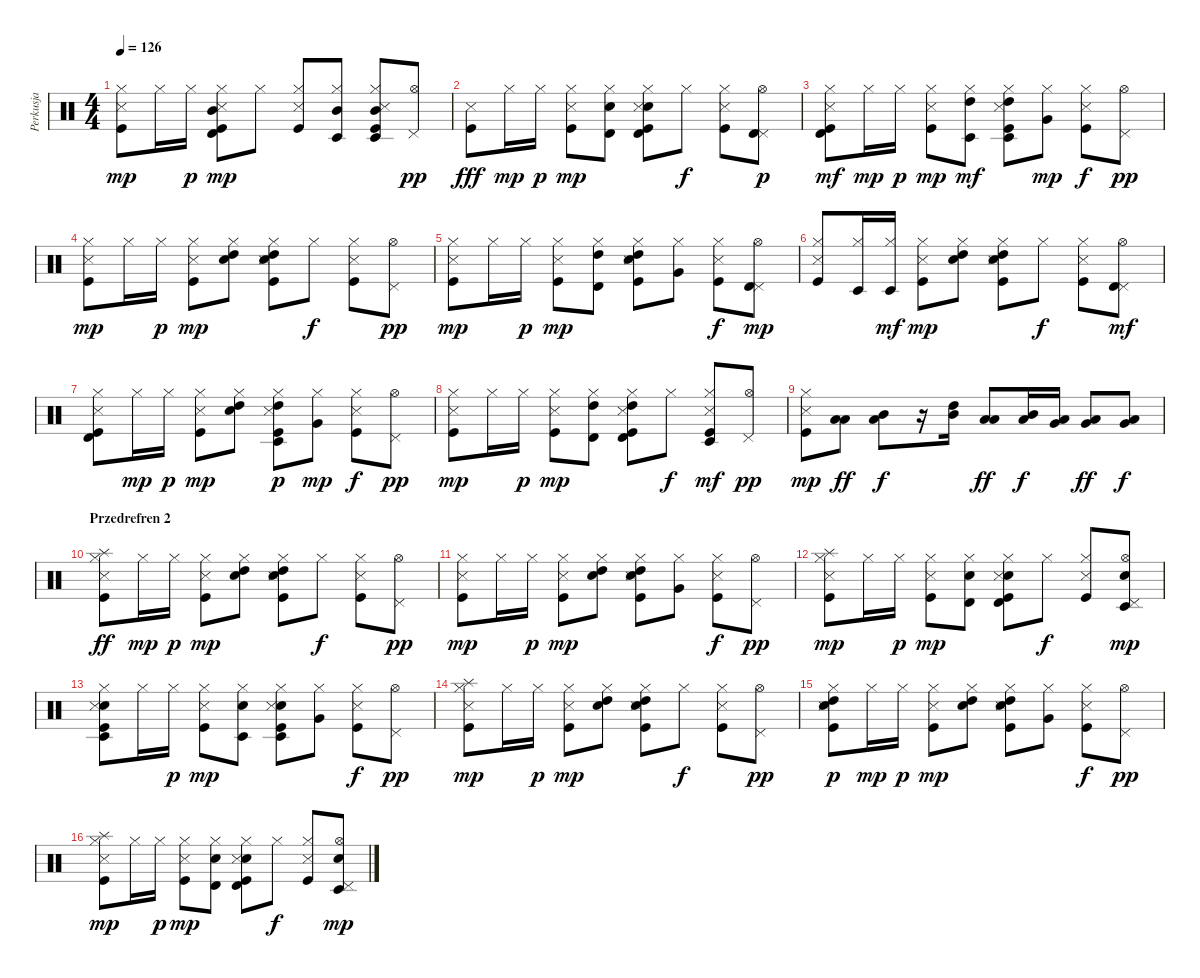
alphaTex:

\track ("Perkusja" "Perkusja") {instrument percussion}
\staff {score}
\articulation defaults
\ts (4 4)
\tempo 126
\clef neutral
\ks c
("Hi-Hat (closed)" "Kick (hit)" "Snare (side stick) 3").8{dy mp} "Hi-Hat (closed)".16 "Hi-Hat (closed)".16{dy p} ("Hi-Hat (closed)" "Kick (hit)" "Timbale high (hit)" "Mid Tom (hit)" "Snare (side stick) 3").8{dy mp} "Hi-Hat (closed)".8 ("Hi-Hat (closed)" "Kick (hit)" "Snare (side stick) 3").8 ("Hi-Hat (closed)" "Timbale low (hit)" "Mid Tom (hit)").8 ("Hi-Hat (closed)" "Kick (hit)" "Timbale low (hit)" "Mid Tom (hit)" "Snare (side stick) 3").8 ("Hi-Hat (open)" "Pedal Hi-Hat (hit)").8{dy pp} |
("Kick (hit)" "Snare (side stick) 3").8{dy fff} "Hi-Hat (closed)".16{dy mp} "Hi-Hat (closed)".16{dy p} ("Hi-Hat (closed)" "Kick (hit)" "Snare (side stick) 3").8{dy mp} ("Hi-Hat (closed)" "Timbale high (hit)" "Electric Snare (hit)").8 ("Hi-Hat (closed)" "Kick (hit)" "Timbale high (hit)" "Electric Snare (hit)" "Snare (side stick) 3").8 "Hi-Hat (closed)".8{dy f} ("Hi-Hat (closed)" "Kick (hit)" "Snare (side stick) 3").8 ("Hi-Hat (open)" "Pedal Hi-Hat (hit)" "Timbale high (hit)").8{dy p} |
("Hi-Hat (closed)" "Kick (hit)" "Timbale high (hit)" "Snare (side stick) 3").8{dy mf} "Hi-Hat (closed)".16{dy mp} "Hi-Hat (closed)".16{dy p} ("Hi-Hat (closed)" "Kick (hit)" "Snare (side stick) 3").8{dy mp} ("Hi-Hat (closed)" "High Tom (hit)" "Timbale low (hit)").8{dy mf} ("Hi-Hat (closed)" "Kick (hit)" "High Tom (hit)" "Timbale low (hit)" "Snare (side stick) 3").8 ("Hi-Hat (closed)" "Very Low Tom (hit)").8{dy mp} ("Hi-Hat (closed)" "Kick (hit)" "Snare (side stick) 3").8{dy f} ("Hi-Hat (open)" "Pedal Hi-Hat (hit)").8{dy pp} |
("Hi-Hat (closed)" "Kick (hit)" "Snare (side stick) 3").8{dy mp} "Hi-Hat (closed)".16 "Hi-Hat (closed)".16{dy p} ("Hi-Hat (closed)" "Kick (hit)" "Snare (side stick) 3").8{dy mp} ("Hi-Hat (closed)" "High Tom (hit)" "Electric Snare (hit)").8 ("Hi-Hat (closed)" "Kick (hit)" "High Tom (hit)" "Electric Snare (hit)" "Snare (side stick) 3").8 "Hi-Hat (closed)".8{dy f} ("Hi-Hat (closed)" "Kick (hit)" "Snare (side stick) 3").8 ("Hi-Hat (open)" "Pedal Hi-Hat (hit)").8{dy pp} |
("Hi-Hat (closed)" "Kick (hit)" "Snare (side stick) 3").8{dy mp} "Hi-Hat (closed)".16 "Hi-Hat (closed)".16{dy p} ("Hi-Hat (closed)" "Kick (hit)" "Snare (side stick) 3").8{dy mp} ("Hi-Hat (closed)" "High Tom (hit)" "Timbale high (hit)").8 ("Hi-Hat (closed)" "Kick (hit)" "High Tom (hit)" "Electric Snare (hit)" "Snare (side stick) 3").8 ("Hi-Hat (closed)" "Very Low Tom (hit)").8 ("Hi-Hat (closed)" "Kick (hit)" "Snare (side stick) 3").8{dy f} ("Hi-Hat (open)" "Pedal Hi-Hat (hit)" "Timbale high (hit)").8{dy mp} |
("Hi-Hat (closed)" "Kick (hit)" "Snare (side stick) 3").8 ("Hi-Hat (closed)" "Timbale low (hit)").16 ("Hi-Hat (closed)" "Timbale low (hit)").16{dy mf} ("Hi-Hat (closed)" "Kick (hit)" "Snare (side stick) 3").8{dy mp} ("Hi-Hat (closed)" "High Tom (hit)" "Electric Snare (hit)").8 ("Hi-Hat (closed)" "Kick (hit)" "High Tom (hit)" "Electric Snare (hit)" "Snare (side stick) 3").8 "Hi-Hat (closed)".8{dy f} ("Hi-Hat (closed)" "Kick (hit)" "Snare (side stick) 3").8 ("Hi-Hat (open)" "Pedal Hi-Hat (hit)" "Timbale high (hit)").8{dy mf} |
("Hi-Hat (closed)" "Kick (hit)" "Timbale high (hit)" "Snare (side stick) 3").8 "Hi-Hat (closed)".16{dy mp} "Hi-Hat (closed)".16{dy p} ("Hi-Hat (closed)" "Kick (hit)" "Snare (side stick) 3").8{dy mp} ("Hi-Hat (closed)" "High Tom (hit)" "Electric Snare (hit)").8 ("Hi-Hat (closed)" "Kick (hit)" "High Tom (hit)" "Timbale low (hit)" "Snare (side stick) 3").8{dy p} ("Hi-Hat (closed)" "Very Low Tom (hit)").8{dy mp} ("Hi-Hat (closed)" "Kick (hit)" "Snare (side stick) 3").8{dy f} ("Hi-Hat (open)" "Pedal Hi-Hat (hit)").8{dy pp} |
("Hi-Hat (closed)" "Kick (hit)" "Snare (side stick) 3").8{dy mp} "Hi-Hat (closed)".16 "Hi-Hat (closed)".16{dy p} ("Hi-Hat (closed)" "Kick (hit)" "Snare (side stick) 3").8{dy mp} ("Hi-Hat (closed)" "High Tom (hit)" "Timbale high (hit)").8 ("Hi-Hat (closed)" "Kick (hit)" "High Tom (hit)" "Timbale high (hit)" "Snare (side stick) 3").8 "Hi-Hat (closed)".8{dy f} ("Hi-Hat (closed)" "Kick (hit)" "Timbale low (hit)" "Snare (side stick) 3").8{dy mf} ("Hi-Hat (open)" "Pedal Hi-Hat (hit)").8{dy pp} |
("Hi-Hat (closed)" "Kick (hit)" "Snare (side stick) 3").8{dy mp} ("Low Tom (hit)" "Low Tom (hit)").8{dy ff} ("Mid Tom (hit)" "Low Tom (hit)").8{dy f} r.16 ("High Tom (hit)" "Mid Tom (hit)").16 ("Low Tom (hit)" "Low Tom (hit)").8{dy ff} ("Low Tom (hit)" "Mid Tom (hit)").16{dy f} ("Very Low Tom (hit)" "Low Tom (hit)").16 ("Very Low Tom (hit)" "Low Tom (hit)").8{dy ff} ("Low Floor Tom (hit)" "Very Low Tom (hit)").8{dy f} |
\section ("" "Przedrefren 2")
("Hi-Hat (closed)" "Kick (hit)" "Splash (hit)" "Snare (side stick) 3").8{dy ff} "Hi-Hat (closed)".16{dy mp} "Hi-Hat (closed)".16{dy p} ("Hi-Hat (closed)" "Kick (hit)" "Snare (side stick) 3").8{dy mp} ("Hi-Hat (closed)" "High Tom (hit)" "Electric Snare (hit)").8 ("Hi-Hat (closed)" "Kick (hit)" "High Tom (hit)" "Electric Snare (hit)" "Snare (side stick) 3").8 "Hi-Hat (closed)".8{dy f} ("Hi-Hat (closed)" "Kick (hit)" "Snare (side stick) 3").8 ("Hi-Hat (open)" "Pedal Hi-Hat (hit)").8{dy pp} |
("Hi-Hat (closed)" "Kick (hit)" "Snare (side stick) 3").8{dy mp} "Hi-Hat (closed)".16 "Hi-Hat (closed)".16{dy p} ("Hi-Hat (closed)" "Kick (hit)" "Snare (side stick) 3").8{dy mp} ("Hi-Hat (closed)" "High Tom (hit)" "Electric Snare (hit)").8 ("Hi-Hat (closed)" "Kick (hit)" "High Tom (hit)" "Electric Snare (hit)" "Snare (side stick) 3").8 ("Hi-Hat (closed)" "Very Low Tom (hit)").8 ("Hi-Hat (closed)" "Kick (hit)" "Snare (side stick) 3").8{dy f} ("Hi-Hat (open)" "Pedal Hi-Hat (hit)").8{dy pp} |
("Hi-Hat (closed)" "Kick (hit)" "Splash (hit)" "Snare (side stick) 3").8{dy mp} "Hi-Hat (closed)".16 "Hi-Hat (closed)".16{dy p} ("Hi-Hat (closed)" "Kick (hit)" "Snare (side stick) 3").8{dy mp} ("Hi-Hat (closed)" "Timbale high (hit)" "Electric Snare (hit)").8 ("Hi-Hat (closed)" "Kick (hit)" "Timbale high (hit)" "Electric Snare (hit)" "Snare (side stick) 3").8 "Hi-Hat (closed)".8{dy f} ("Hi-Hat (closed)" "Kick (hit)" "Snare (side stick) 3").8 ("Hi-Hat (open)" "Pedal Hi-Hat (hit)" "Timbale low (hit)" "Electric Snare (hit)").8{dy mp} |
("Hi-Hat (closed)" "Kick (hit)" "Timbale low (hit)" "Electric Snare (hit)" "Snare (side stick) 3").8 "Hi-Hat (closed)".16 "Hi-Hat (closed)".16{dy p} ("Hi-Hat (closed)" "Kick (hit)" "Snare (side stick) 3").8{dy mp} ("Hi-Hat (closed)" "Timbale low (hit)" "Electric Snare (hit)").8 ("Hi-Hat (closed)" "Kick (hit)" "Timbale low (hit)" "Electric Snare (hit)" "Snare (side stick) 3").8 ("Hi-Hat (closed)" "Very Low Tom (hit)").8 ("Hi-Hat (closed)" "Kick (hit)" "Snare (side stick) 3").8{dy f} ("Hi-Hat (open)" "Pedal Hi-Hat (hit)").8{dy pp} |
("Hi-Hat (closed)" "Kick (hit)" "Splash (hit)" "Snare (side stick) 3").8{dy mp} "Hi-Hat (closed)".16 "Hi-Hat (closed)".16{dy p} ("Hi-Hat (closed)" "Kick (hit)" "Snare (side stick) 3").8{dy mp} ("Hi-Hat (closed)" "High Tom (hit)" "Electric Snare (hit)").8 ("Hi-Hat (closed)" "Kick (hit)" "High Tom (hit)" "Electric Snare (hit)" "Snare (side stick) 3").8 "Hi-Hat (closed)".8{dy f} ("Hi-Hat (closed)" "Kick (hit)" "Snare (side stick) 3").8 ("Hi-Hat (open)" "Pedal Hi-Hat (hit)").8{dy pp} |
("Hi-Hat (closed)" "Kick (hit)" "High Tom (hit)" "Electric Snare (hit)" "Snare (side stick) 3").8{dy p} "Hi-Hat (closed)".16{dy mp} "Hi-Hat (closed)".16{dy p} ("Hi-Hat (closed)" "Kick (hit)" "Snare (side stick) 3").8{dy mp} ("Hi-Hat (closed)" "High Tom (hit)" "Electric Snare (hit)").8 ("Hi-Hat (closed)" "Kick (hit)" "High Tom (hit)" "Electric Snare (hit)" "Snare (side stick) 3").8 ("Hi-Hat (closed)" "Very Low Tom (hit)").8 ("Hi-Hat (closed)" "Kick (hit)" "Snare (side stick) 3").8{dy f} ("Hi-Hat (open)" "Pedal Hi-Hat (hit)").8{dy pp} |
("Hi-Hat (closed)" "Kick (hit)" "Splash (hit)" "Snare (side stick) 3").8{dy mp} "Hi-Hat (closed)".16 "Hi-Hat (closed)".16{dy p} ("Hi-Hat (closed)" "Kick (hit)" "Snare (side stick) 3").8{dy mp} ("Hi-Hat (closed)" "Timbale high (hit)" "Electric Snare (hit)").8 ("Hi-Hat (closed)" "Kick (hit)" "Timbale high (hit)" "Electric Snare (hit)" "Snare (side stick) 3").8 "Hi-Hat (closed)".8{dy f} ("Hi-Hat (closed)" "Kick (hit)" "Snare (side stick) 3").8 ("Hi-Hat (open)" "Pedal Hi-Hat (hit)" "Timbale low (hit)" "Electric Snare (hit)").8{dy mp}
